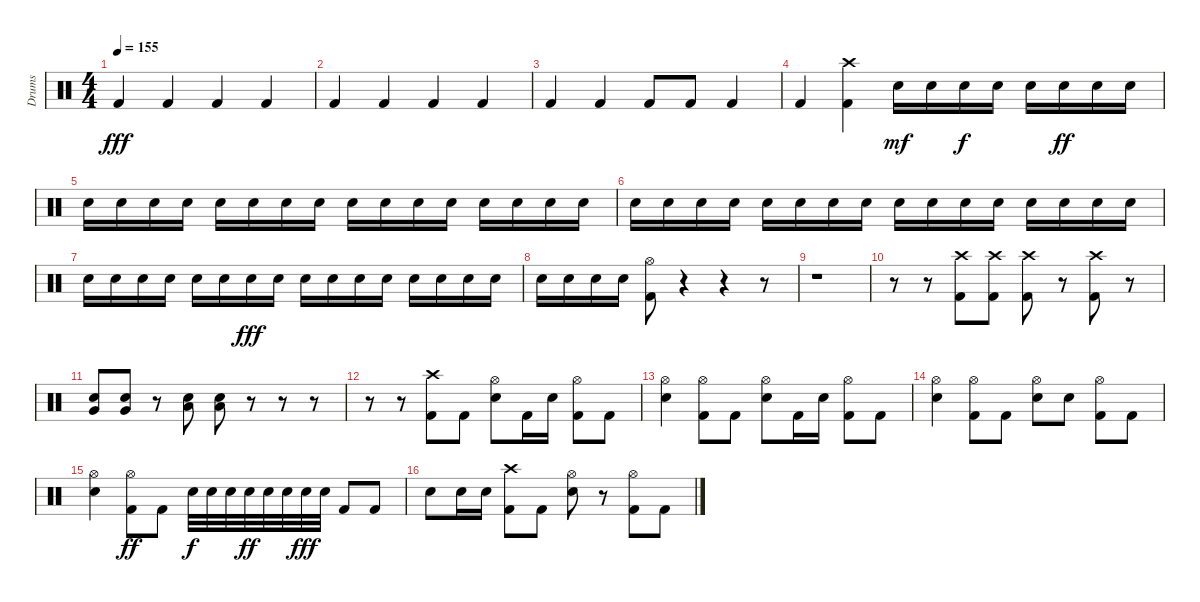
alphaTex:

\track ("Drums" "Drums") {instrument percussion}
\staff {score}
\articulation defaults
\ts (4 4)
\tempo 155
\clef neutral
\ks c "Kick (hit) 2".4{dy fff} "Kick (hit) 2".4 "Kick (hit) 2".4 "Kick (hit) 2".4
|
"Kick (hit) 2".4 "Kick (hit) 2".4 "Kick (hit) 2".4 "Kick (hit) 2".4 |
"Kick (hit) 2".4 "Kick (hit) 2".4 "Kick (hit) 2".8 "Kick (hit) 2".8 "Kick (hit) 2".4 |
"Kick (hit) 2".4 ("Crash high (hit)" "Kick (hit) 2").4 "Snare (hit) 2".16{dy mf} "Snare (hit) 2".16 "Snare (hit) 2".16{dy f} "Snare (hit) 2".16 "Snare (hit) 2".16 "Snare (hit) 2".16{dy ff} "Snare (hit) 2".16 "Snare (hit) 2".16 |
"Snare (hit) 2".16 "Snare (hit) 2".16 "Snare (hit) 2".16 "Snare (hit) 2".16 "Snare (hit) 2".16 "Snare (hit) 2".16 "Snare (hit) 2".16 "Snare (hit) 2".16 "Snare (hit) 2".16 "Snare (hit) 2".16 "Snare (hit) 2".16 "Snare (hit) 2".16 "Snare (hit) 2".16 "Snare (hit) 2".16 "Snare (hit) 2".16 "Snare (hit) 2".16 |
"Snare (hit) 2".16 "Snare (hit) 2".16 "Snare (hit) 2".16 "Snare (hit) 2".16 "Snare (hit) 2".16 "Snare (hit) 2".16 "Snare (hit) 2".16 "Snare (hit) 2".16 "Snare (hit) 2".16 "Snare (hit) 2".16 "Snare (hit) 2".16 "Snare (hit) 2".16 "Snare (hit) 2".16 "Snare (hit) 2".16 "Snare (hit) 2".16 "Snare (hit) 2".16 |
"Snare (hit) 2".16 "Snare (hit) 2".16 "Snare (hit) 2".16 "Snare (hit) 2".16 "Snare (hit) 2".16 "Snare (hit) 2".16 "Snare (hit) 2".16{dy fff} "Snare (hit) 2".16 "Snare (hit) 2".16 "Snare (hit) 2".16 "Snare (hit) 2".16 "Snare (hit) 2".16 "Snare (hit) 2".16 "Snare (hit) 2".16 "Snare (hit) 2".16 "Snare (hit) 2".16 |
"Snare (hit) 2".16 "Snare (hit) 2".16 "Snare (hit) 2".16 "Snare (hit) 2".16 ("Hi-Hat (open)" "Kick (hit) 2").8 r.4 r.4 r.8 |
r.1 |
r.8 r.8 ("Crash high (hit)" "Kick (hit) 2").8 ("Crash high (hit)" "Kick (hit) 2").8 ("Crash high (hit)" "Kick (hit) 2").8 r.8 ("Crash high (hit)" "Kick (hit) 2").8 r.8 |
("Snare (hit) 2" "Very Low Tom (hit)").8 ("Snare (hit) 2" "Very Low Tom (hit)").8 r.8 ("Snare (hit) 2" "Low Floor Tom (hit)").8 ("Snare (hit) 2" "Low Floor Tom (hit)").8 r.8 r.8 r.8 |
r.8 r.8 ("Crash high (hit)" "Kick (hit) 2").8 "Kick (hit) 2".8 ("Hi-Hat (open)" "Snare (hit) 2").8 "Kick (hit) 2".16 "Snare (hit) 2".16 ("Hi-Hat (open)" "Kick (hit) 2").8 "Kick (hit) 2".8 |
("Hi-Hat (open)" "Snare (hit) 2").4 ("Hi-Hat (open)" "Kick (hit) 2").8 "Kick (hit) 2".8 ("Hi-Hat (open)" "Snare (hit) 2").8 "Kick (hit) 2".16 "Snare (hit) 2".16 ("Hi-Hat (open)" "Kick (hit) 2").8 "Kick (hit) 2".8 |
("Hi-Hat (open)" "Snare (hit) 2").4 ("Hi-Hat (open)" "Kick (hit) 2").8 "Kick (hit) 2".8 ("Hi-Hat (open)" "Snare (hit) 2").8 "Snare (hit) 2".8 ("Hi-Hat (open)" "Kick (hit) 2").8 "Kick (hit) 2".8 |
("Hi-Hat (open)" "Snare (hit) 2").4 ("Hi-Hat (open)" "Kick (hit) 2").8{dy ff} "Kick (hit) 2".8 "Snare (hit) 2".32{dy f} "Snare (hit) 2".32 "Snare (hit) 2".32 "Snare (hit) 2".32{dy ff} "Snare (hit) 2".32 "Snare (hit) 2".32 "Snare (hit) 2".32{dy fff} "Snare (hit) 2".32 "Kick (hit) 2".8 "Kick (hit) 2".8 |
"Snare (hit) 2".8 "Snare (hit) 2".16 "Snare (hit) 2".16 ("Crash high (hit)" "Kick (hit) 2").8 "Kick (hit) 2".8 ("Hi-Hat (open)" "Snare (hit) 2").8 r.8 ("Hi-Hat (open)" "Kick (hit) 2").8 "Kick (hit) 2".8
